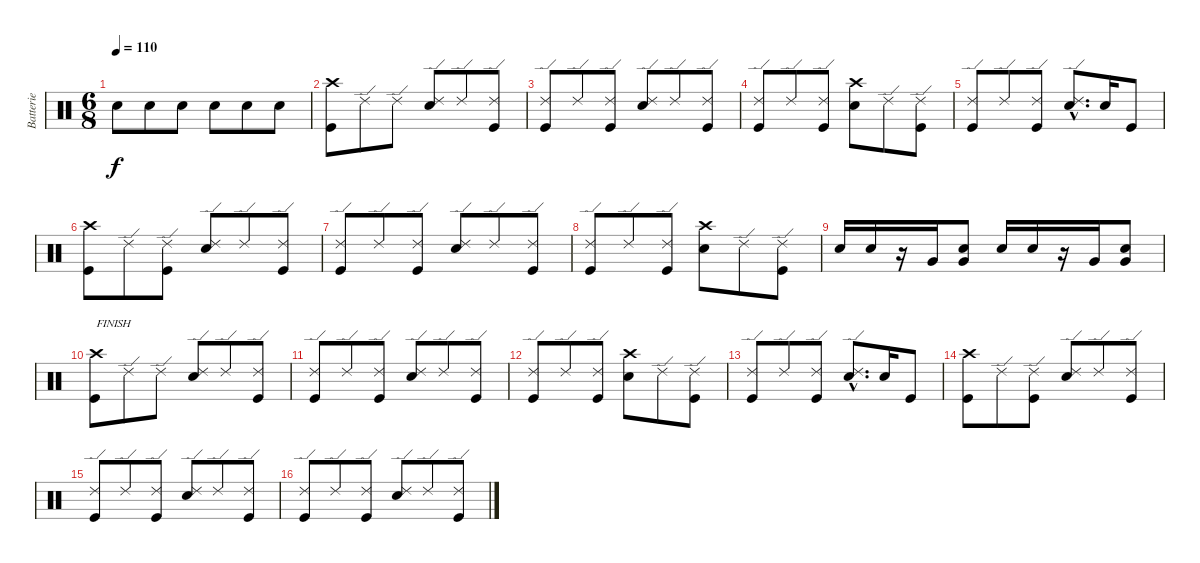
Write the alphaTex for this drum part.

\track ("Batterie" "Batterie") {instrument percussion}
\staff {score}
\articulation defaults
\ts (6 8)
\tempo 110
\clef neutral
\ks c "Snare (hit) 2".8{dy f} "Snare (hit) 2".8 "Snare (hit) 2".8 "Snare (hit) 2".8 "Snare (hit) 2".8 "Snare (hit) 2".8
|
("Crash high (hit)" "Kick (hit)").8 "Ride (edge) 2".8 "Ride (edge) 2".8 ("Ride (edge) 2" "Snare (hit) 2").8 "Ride (edge) 2".8 ("Ride (edge) 2" "Kick (hit)").8 |
("Ride (edge) 2" "Kick (hit)").8 "Ride (edge) 2".8 ("Ride (edge) 2" "Kick (hit)").8 ("Ride (edge) 2" "Snare (hit) 2").8 "Ride (edge) 2".8 ("Ride (edge) 2" "Kick (hit)").8 |
("Ride (edge) 2" "Kick (hit)").8 "Ride (edge) 2".8 ("Ride (edge) 2" "Kick (hit)").8 ("Crash high (hit)" "Snare (hit) 2").8 "Ride (edge) 2".8 ("Ride (edge) 2" "Kick (hit)").8 |
("Ride (edge) 2" "Kick (hit)").8 "Ride (edge) 2".8 ("Ride (edge) 2" "Kick (hit)").8 ("Ride (edge) 2"{hac} "Snare (hit) 2"{hac}).8{d} "Snare (hit) 2".16 "Kick (hit)".8 |
("Crash high (hit)" "Kick (hit)").8 "Ride (edge) 2".8 ("Ride (edge) 2" "Kick (hit)").8 ("Ride (edge) 2" "Snare (hit) 2").8 "Ride (edge) 2".8 ("Ride (edge) 2" "Kick (hit)").8 |
("Ride (edge) 2" "Kick (hit)").8 "Ride (edge) 2".8 ("Ride (edge) 2" "Kick (hit)").8 ("Ride (edge) 2" "Snare (hit) 2").8 "Ride (edge) 2".8 ("Ride (edge) 2" "Kick (hit)").8 |
("Ride (edge) 2" "Kick (hit)").8 "Ride (edge) 2".8 ("Ride (edge) 2" "Kick (hit)").8 ("Crash high (hit)" "Snare (hit) 2").8 "Ride (edge) 2".8 ("Ride (edge) 2" "Kick (hit)").8 |
"Snare (hit) 2".16 "Snare (hit) 2".16 r.16 "Very Low Tom (hit)".16 ("Snare (hit) 2" "Very Low Tom (hit)").8 "Snare (hit) 2".16 "Snare (hit) 2".16 r.16 "Very Low Tom (hit)".16 ("Snare (hit) 2" "Very Low Tom (hit)").8 |
("Crash high (hit)" "Kick (hit)").8{txt "FINISH"} "Ride (edge) 2".8 "Ride (edge) 2".8 ("Ride (edge) 2" "Snare (hit) 2").8 "Ride (edge) 2".8 ("Ride (edge) 2" "Kick (hit)").8 |
("Ride (edge) 2" "Kick (hit)").8 "Ride (edge) 2".8 ("Ride (edge) 2" "Kick (hit)").8 ("Ride (edge) 2" "Snare (hit) 2").8 "Ride (edge) 2".8 ("Ride (edge) 2" "Kick (hit)").8 |
("Ride (edge) 2" "Kick (hit)").8 "Ride (edge) 2".8 ("Ride (edge) 2" "Kick (hit)").8 ("Crash high (hit)" "Snare (hit) 2").8 "Ride (edge) 2".8 ("Ride (edge) 2" "Kick (hit)").8 |
("Ride (edge) 2" "Kick (hit)").8 "Ride (edge) 2".8 ("Ride (edge) 2" "Kick (hit)").8 ("Ride (edge) 2"{hac} "Snare (hit) 2"{hac}).8{d} "Snare (hit) 2".16 "Kick (hit)".8 |
("Crash high (hit)" "Kick (hit)").8 "Ride (edge) 2".8 ("Ride (edge) 2" "Kick (hit)").8 ("Ride (edge) 2" "Snare (hit) 2").8 "Ride (edge) 2".8 ("Ride (edge) 2" "Kick (hit)").8 |
("Ride (edge) 2" "Kick (hit)").8 "Ride (edge) 2".8 ("Ride (edge) 2" "Kick (hit)").8 ("Ride (edge) 2" "Snare (hit) 2").8 "Ride (edge) 2".8 ("Ride (edge) 2" "Kick (hit)").8 |
("Ride (edge) 2" "Kick (hit)").8 "Ride (edge) 2".8 ("Ride (edge) 2" "Kick (hit)").8 ("Ride (edge) 2" "Snare (hit) 2").8 "Ride (edge) 2".8 ("Ride (edge) 2" "Kick (hit)").8
